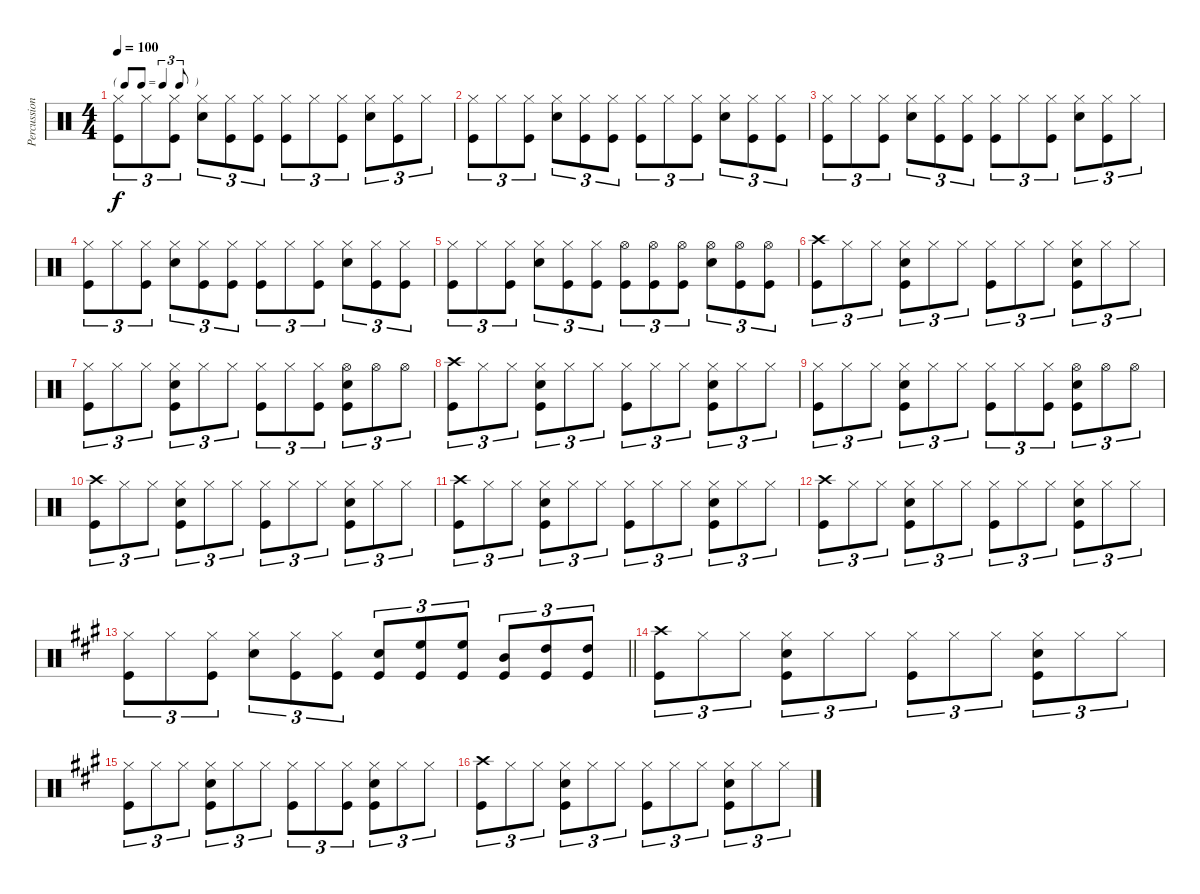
\track ("Percussions" "Percussion") {instrument percussion}
\staff {score}
\articulation defaults
\ts (4 4)
\tf triplet8th
\tempo 100
\clef neutral
\ks c
("Hi-Hat (closed)" "Kick (hit)").8{tu (3 2) dy f} "Hi-Hat (closed)".8{tu (3 2)} ("Hi-Hat (closed)" "Kick (hit)").8{tu (3 2)} ("Hi-Hat (closed)" "Snare (hit) 2").8{tu (3 2)} ("Hi-Hat (closed)" "Kick (hit)").8{tu (3 2)} ("Hi-Hat (closed)" "Kick (hit)").8{tu (3 2)} ("Hi-Hat (closed)" "Kick (hit)").8{tu (3 2)} "Hi-Hat (closed)".8{tu (3 2)} ("Hi-Hat (closed)" "Kick (hit)").8{tu (3 2)} ("Hi-Hat (closed)" "Snare (hit) 2").8{tu (3 2)} ("Hi-Hat (closed)" "Kick (hit)").8{tu (3 2)} "Hi-Hat (closed)".8{tu (3 2)} |
("Hi-Hat (closed)" "Kick (hit)").8{tu (3 2)} "Hi-Hat (closed)".8{tu (3 2)} ("Hi-Hat (closed)" "Kick (hit)").8{tu (3 2)} ("Hi-Hat (closed)" "Snare (hit) 2").8{tu (3 2)} ("Hi-Hat (closed)" "Kick (hit)").8{tu (3 2)} ("Hi-Hat (closed)" "Kick (hit)").8{tu (3 2)} ("Hi-Hat (closed)" "Kick (hit)").8{tu (3 2)} "Hi-Hat (closed)".8{tu (3 2)} ("Hi-Hat (closed)" "Kick (hit)").8{tu (3 2)} ("Hi-Hat (closed)" "Snare (hit) 2").8{tu (3 2)} ("Hi-Hat (closed)" "Kick (hit)").8{tu (3 2)} ("Hi-Hat (closed)" "Kick (hit)").8{tu (3 2)} |
("Hi-Hat (closed)" "Kick (hit)").8{tu (3 2)} "Hi-Hat (closed)".8{tu (3 2)} ("Hi-Hat (closed)" "Kick (hit)").8{tu (3 2)} ("Hi-Hat (closed)" "Snare (hit) 2").8{tu (3 2)} ("Hi-Hat (closed)" "Kick (hit)").8{tu (3 2)} ("Hi-Hat (closed)" "Kick (hit)").8{tu (3 2)} ("Hi-Hat (closed)" "Kick (hit)").8{tu (3 2)} "Hi-Hat (closed)".8{tu (3 2)} ("Hi-Hat (closed)" "Kick (hit)").8{tu (3 2)} ("Hi-Hat (closed)" "Snare (hit) 2").8{tu (3 2)} ("Hi-Hat (closed)" "Kick (hit)").8{tu (3 2)} "Hi-Hat (closed)".8{tu (3 2)} |
("Hi-Hat (closed)" "Kick (hit)").8{tu (3 2)} "Hi-Hat (closed)".8{tu (3 2)} ("Hi-Hat (closed)" "Kick (hit)").8{tu (3 2)} ("Hi-Hat (closed)" "Snare (hit) 2").8{tu (3 2)} ("Hi-Hat (closed)" "Kick (hit)").8{tu (3 2)} ("Hi-Hat (closed)" "Kick (hit)").8{tu (3 2)} ("Hi-Hat (closed)" "Kick (hit)").8{tu (3 2)} "Hi-Hat (closed)".8{tu (3 2)} ("Hi-Hat (closed)" "Kick (hit)").8{tu (3 2)} ("Hi-Hat (closed)" "Snare (hit) 2").8{tu (3 2)} ("Hi-Hat (closed)" "Kick (hit)").8{tu (3 2)} ("Hi-Hat (closed)" "Kick (hit)").8{tu (3 2)} |
("Hi-Hat (closed)" "Kick (hit)").8{tu (3 2)} "Hi-Hat (closed)".8{tu (3 2)} ("Hi-Hat (closed)" "Kick (hit)").8{tu (3 2)} ("Hi-Hat (closed)" "Snare (hit) 2").8{tu (3 2)} ("Hi-Hat (closed)" "Kick (hit)").8{tu (3 2)} ("Hi-Hat (closed)" "Kick (hit)").8{tu (3 2)} ("Hi-Hat (open)" "Kick (hit)").8{tu (3 2)} ("Hi-Hat (open)" "Kick (hit)").8{tu (3 2)} ("Hi-Hat (open)" "Kick (hit)").8{tu (3 2)} ("Hi-Hat (open)" "Snare (hit) 2").8{tu (3 2)} ("Hi-Hat (open)" "Kick (hit)").8{tu (3 2)} ("Hi-Hat (open)" "Kick (hit)").8{tu (3 2)} |
("Crash high (hit)" "Kick (hit)").8{tu (3 2)} "Hi-Hat (closed)".8{tu (3 2)} "Hi-Hat (closed)".8{tu (3 2)} ("Hi-Hat (closed)" "Snare (hit) 2" "Kick (hit)").8{tu (3 2)} "Hi-Hat (closed)".8{tu (3 2)} "Hi-Hat (closed)".8{tu (3 2)} ("Hi-Hat (closed)" "Kick (hit)").8{tu (3 2)} "Hi-Hat (closed)".8{tu (3 2)} "Hi-Hat (closed)".8{tu (3 2)} ("Hi-Hat (closed)" "Snare (hit) 2" "Kick (hit)").8{tu (3 2)} "Hi-Hat (closed)".8{tu (3 2)} "Hi-Hat (closed)".8{tu (3 2)} |
("Hi-Hat (closed)" "Kick (hit)").8{tu (3 2)} "Hi-Hat (closed)".8{tu (3 2)} "Hi-Hat (closed)".8{tu (3 2)} ("Hi-Hat (closed)" "Snare (hit) 2" "Kick (hit)").8{tu (3 2)} "Hi-Hat (closed)".8{tu (3 2)} "Hi-Hat (closed)".8{tu (3 2)} ("Hi-Hat (closed)" "Kick (hit)").8{tu (3 2)} "Hi-Hat (closed)".8{tu (3 2)} ("Hi-Hat (closed)" "Kick (hit)").8{tu (3 2)} ("Hi-Hat (open)" "Snare (hit) 2" "Kick (hit)").8{tu (3 2)} "Hi-Hat (open)".8{tu (3 2)} "Hi-Hat (open)".8{tu (3 2)} |
("Crash high (hit)" "Kick (hit)").8{tu (3 2)} "Hi-Hat (closed)".8{tu (3 2)} "Hi-Hat (closed)".8{tu (3 2)} ("Hi-Hat (closed)" "Snare (hit) 2" "Kick (hit)").8{tu (3 2)} "Hi-Hat (closed)".8{tu (3 2)} "Hi-Hat (closed)".8{tu (3 2)} ("Hi-Hat (closed)" "Kick (hit)").8{tu (3 2)} "Hi-Hat (closed)".8{tu (3 2)} "Hi-Hat (closed)".8{tu (3 2)} ("Hi-Hat (closed)" "Snare (hit) 2" "Kick (hit)").8{tu (3 2)} "Hi-Hat (closed)".8{tu (3 2)} "Hi-Hat (closed)".8{tu (3 2)} |
("Hi-Hat (closed)" "Kick (hit)").8{tu (3 2)} "Hi-Hat (closed)".8{tu (3 2)} "Hi-Hat (closed)".8{tu (3 2)} ("Hi-Hat (closed)" "Snare (hit) 2" "Kick (hit)").8{tu (3 2)} "Hi-Hat (closed)".8{tu (3 2)} "Hi-Hat (closed)".8{tu (3 2)} ("Hi-Hat (closed)" "Kick (hit)").8{tu (3 2)} "Hi-Hat (closed)".8{tu (3 2)} ("Hi-Hat (closed)" "Kick (hit)").8{tu (3 2)} ("Hi-Hat (open)" "Snare (hit) 2" "Kick (hit)").8{tu (3 2)} "Hi-Hat (open)".8{tu (3 2)} "Hi-Hat (open)".8{tu (3 2)} |
("Crash high (hit)" "Kick (hit)").8{tu (3 2)} "Hi-Hat (closed)".8{tu (3 2)} "Hi-Hat (closed)".8{tu (3 2)} ("Hi-Hat (closed)" "Snare (hit) 2" "Kick (hit)").8{tu (3 2)} "Hi-Hat (closed)".8{tu (3 2)} "Hi-Hat (closed)".8{tu (3 2)} ("Hi-Hat (closed)" "Kick (hit)").8{tu (3 2)} "Hi-Hat (closed)".8{tu (3 2)} "Hi-Hat (closed)".8{tu (3 2)} ("Hi-Hat (closed)" "Snare (hit) 2" "Kick (hit)").8{tu (3 2)} "Hi-Hat (closed)".8{tu (3 2)} "Hi-Hat (closed)".8{tu (3 2)} |
("Crash high (hit)" "Kick (hit)").8{tu (3 2)} "Hi-Hat (closed)".8{tu (3 2)} "Hi-Hat (closed)".8{tu (3 2)} ("Hi-Hat (closed)" "Snare (hit) 2" "Kick (hit)").8{tu (3 2)} "Hi-Hat (closed)".8{tu (3 2)} "Hi-Hat (closed)".8{tu (3 2)} ("Hi-Hat (closed)" "Kick (hit)").8{tu (3 2)} "Hi-Hat (closed)".8{tu (3 2)} "Hi-Hat (closed)".8{tu (3 2)} ("Hi-Hat (closed)" "Snare (hit) 2" "Kick (hit)").8{tu (3 2)} "Hi-Hat (closed)".8{tu (3 2)} "Hi-Hat (closed)".8{tu (3 2)} |
("Crash high (hit)" "Kick (hit)").8{tu (3 2)} "Hi-Hat (closed)".8{tu (3 2)} "Hi-Hat (closed)".8{tu (3 2)} ("Hi-Hat (closed)" "Snare (hit) 2" "Kick (hit)").8{tu (3 2)} "Hi-Hat (closed)".8{tu (3 2)} "Hi-Hat (closed)".8{tu (3 2)} ("Hi-Hat (closed)" "Kick (hit)").8{tu (3 2)} "Hi-Hat (closed)".8{tu (3 2)} "Hi-Hat (closed)".8{tu (3 2)} ("Hi-Hat (closed)" "Snare (hit) 2" "Kick (hit)").8{tu (3 2)} "Hi-Hat (closed)".8{tu (3 2)} "Hi-Hat (closed)".8{tu (3 2)} |
\barLineRight lightlight
\ks f#minor
("Hi-Hat (closed)" "Kick (hit)").8{tu (3 2)} "Hi-Hat (closed)".8{tu (3 2)} ("Hi-Hat (closed)" "Kick (hit)").8{tu (3 2)} ("Hi-Hat (closed)" "Snare (hit) 2").8{tu (3 2)} ("Hi-Hat (closed)" "Kick (hit)").8{tu (3 2)} ("Hi-Hat (closed)" "Kick (hit)").8{tu (3 2)} ("Electric Snare (hit)" "Kick (hit)").8{tu (3 2)} ("High Floor Tom (hit)" "Kick (hit)").8{tu (3 2)} ("High Floor Tom (hit)" "Kick (hit)").8{tu (3 2)} ("Mid Tom (hit)" "Kick (hit)").8{tu (3 2)} ("High Tom (hit)" "Kick (hit)").8{tu (3 2)} ("High Tom (hit)" "Kick (hit)").8{tu (3 2)} |
("Crash high (hit)" "Kick (hit)").8{tu (3 2)} "Hi-Hat (closed)".8{tu (3 2)} "Hi-Hat (closed)".8{tu (3 2)} ("Hi-Hat (closed)" "Snare (hit) 2" "Kick (hit)").8{tu (3 2)} "Hi-Hat (closed)".8{tu (3 2)} "Hi-Hat (closed)".8{tu (3 2)} ("Hi-Hat (closed)" "Kick (hit)").8{tu (3 2)} "Hi-Hat (closed)".8{tu (3 2)} "Hi-Hat (closed)".8{tu (3 2)} ("Hi-Hat (closed)" "Snare (hit) 2" "Kick (hit)").8{tu (3 2)} "Hi-Hat (closed)".8{tu (3 2)} "Hi-Hat (closed)".8{tu (3 2)} |
("Hi-Hat (closed)" "Kick (hit)").8{tu (3 2)} "Hi-Hat (closed)".8{tu (3 2)} "Hi-Hat (closed)".8{tu (3 2)} ("Hi-Hat (closed)" "Snare (hit) 2" "Kick (hit)").8{tu (3 2)} "Hi-Hat (closed)".8{tu (3 2)} "Hi-Hat (closed)".8{tu (3 2)} ("Hi-Hat (closed)" "Kick (hit)").8{tu (3 2)} "Hi-Hat (closed)".8{tu (3 2)} ("Hi-Hat (closed)" "Kick (hit)").8{tu (3 2)} ("Hi-Hat (closed)" "Snare (hit) 2" "Kick (hit)").8{tu (3 2)} "Hi-Hat (closed)".8{tu (3 2)} "Hi-Hat (closed)".8{tu (3 2)} |
("Crash high (hit)" "Kick (hit)").8{tu (3 2)} "Hi-Hat (closed)".8{tu (3 2)} "Hi-Hat (closed)".8{tu (3 2)} ("Hi-Hat (closed)" "Snare (hit) 2" "Kick (hit)").8{tu (3 2)} "Hi-Hat (closed)".8{tu (3 2)} "Hi-Hat (closed)".8{tu (3 2)} ("Hi-Hat (closed)" "Kick (hit)").8{tu (3 2)} "Hi-Hat (closed)".8{tu (3 2)} "Hi-Hat (closed)".8{tu (3 2)} ("Hi-Hat (closed)" "Snare (hit) 2" "Kick (hit)").8{tu (3 2)} "Hi-Hat (closed)".8{tu (3 2)} "Hi-Hat (closed)".8{tu (3 2)}
